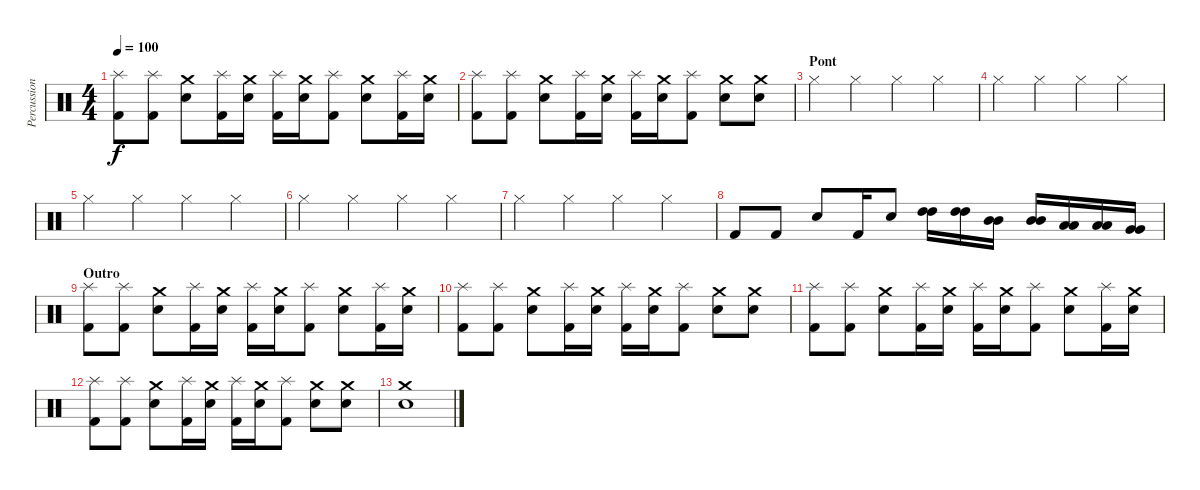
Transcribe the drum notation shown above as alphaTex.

\track ("Percussions" "Percussion") {instrument percussion}
\staff {score}
\articulation defaults
\ts (4 4)
\tempo 100
\clef neutral
\ks c
("Splash (hit)" "Kick (hit) 2").8{dy f} ("Splash (hit)" "Kick (hit) 2").8 ("Crash medium (hit)" "Snare (hit) 2").8 ("Splash (hit)" "Kick (hit) 2").16 ("Crash medium (hit)" "Snare (hit) 2").16 ("Splash (hit)" "Kick (hit) 2").16 ("Crash medium (hit)" "Snare (hit) 2").16 ("Splash (hit)" "Kick (hit) 2").8 ("Crash medium (hit)" "Snare (hit) 2").8 ("Splash (hit)" "Kick (hit) 2").16 ("Crash medium (hit)" "Snare (hit) 2").16 |
("Splash (hit)" "Kick (hit) 2").8 ("Splash (hit)" "Kick (hit) 2").8 ("Crash medium (hit)" "Snare (hit) 2").8 ("Splash (hit)" "Kick (hit) 2").16 ("Crash medium (hit)" "Snare (hit) 2").16 ("Splash (hit)" "Kick (hit) 2").16 ("Crash medium (hit)" "Snare (hit) 2").16 ("Splash (hit)" "Kick (hit) 2").8 ("Crash medium (hit)" "Snare (hit) 2").8 ("Crash medium (hit)" "Snare (hit) 2").8 |
\section ("" "Pont")
"Hi-Hat (closed)".4 "Hi-Hat (closed)".4 "Hi-Hat (closed)".4 "Hi-Hat (closed)".4 |
"Hi-Hat (closed)".4 "Hi-Hat (closed)".4 "Hi-Hat (closed)".4 "Hi-Hat (closed)".4 |
"Hi-Hat (closed)".4 "Hi-Hat (closed)".4 "Hi-Hat (closed)".4 "Hi-Hat (closed)".4 |
"Hi-Hat (closed)".4 "Hi-Hat (closed)".4 "Hi-Hat (closed)".4 "Hi-Hat (closed)".4 |
"Hi-Hat (closed)".4 "Hi-Hat (closed)".4 "Hi-Hat (closed)".4 "Hi-Hat (closed)".4 |
"Kick (hit) 2".8 "Kick (hit) 2".8 "Snare (hit) 2".8 "Kick (hit) 2".16 "Snare (hit) 2".8 ("High Tom (hit)" "High Tom (hit)").16 ("High Tom (hit)" "High Tom (hit)").16 ("Mid Tom (hit)" "Mid Tom (hit)").16 ("Mid Tom (hit)" "Mid Tom (hit)").16 ("Low Tom (hit)" "Low Tom (hit)").16 ("Low Tom (hit)" "Low Tom (hit)").16 ("Very Low Tom (hit)" "Very Low Tom (hit)").16 |
\section ("" "Outro")
("Splash (hit)" "Kick (hit) 2").8 ("Splash (hit)" "Kick (hit) 2").8 ("Crash medium (hit)" "Snare (hit) 2").8 ("Splash (hit)" "Kick (hit) 2").16 ("Crash medium (hit)" "Snare (hit) 2").16 ("Splash (hit)" "Kick (hit) 2").16 ("Crash medium (hit)" "Snare (hit) 2").16 ("Splash (hit)" "Kick (hit) 2").8 ("Crash medium (hit)" "Snare (hit) 2").8 ("Splash (hit)" "Kick (hit) 2").16 ("Crash medium (hit)" "Snare (hit) 2").16 |
("Splash (hit)" "Kick (hit) 2").8 ("Splash (hit)" "Kick (hit) 2").8 ("Crash medium (hit)" "Snare (hit) 2").8 ("Splash (hit)" "Kick (hit) 2").16 ("Crash medium (hit)" "Snare (hit) 2").16 ("Splash (hit)" "Kick (hit) 2").16 ("Crash medium (hit)" "Snare (hit) 2").16 ("Splash (hit)" "Kick (hit) 2").8 ("Crash medium (hit)" "Snare (hit) 2").8 ("Crash medium (hit)" "Snare (hit) 2").8 |
("Splash (hit)" "Kick (hit) 2").8 ("Splash (hit)" "Kick (hit) 2").8 ("Crash medium (hit)" "Snare (hit) 2").8 ("Splash (hit)" "Kick (hit) 2").16 ("Crash medium (hit)" "Snare (hit) 2").16 ("Splash (hit)" "Kick (hit) 2").16 ("Crash medium (hit)" "Snare (hit) 2").16 ("Splash (hit)" "Kick (hit) 2").8 ("Crash medium (hit)" "Snare (hit) 2").8 ("Splash (hit)" "Kick (hit) 2").16 ("Crash medium (hit)" "Snare (hit) 2").16 |
("Splash (hit)" "Kick (hit) 2").8 ("Splash (hit)" "Kick (hit) 2").8 ("Crash medium (hit)" "Snare (hit) 2").8 ("Splash (hit)" "Kick (hit) 2").16 ("Crash medium (hit)" "Snare (hit) 2").16 ("Splash (hit)" "Kick (hit) 2").16 ("Crash medium (hit)" "Snare (hit) 2").16 ("Splash (hit)" "Kick (hit) 2").8 ("Crash medium (hit)" "Snare (hit) 2").8 ("Crash medium (hit)" "Snare (hit) 2").8 |
("Crash medium (hit)" "Snare (hit) 2").1
